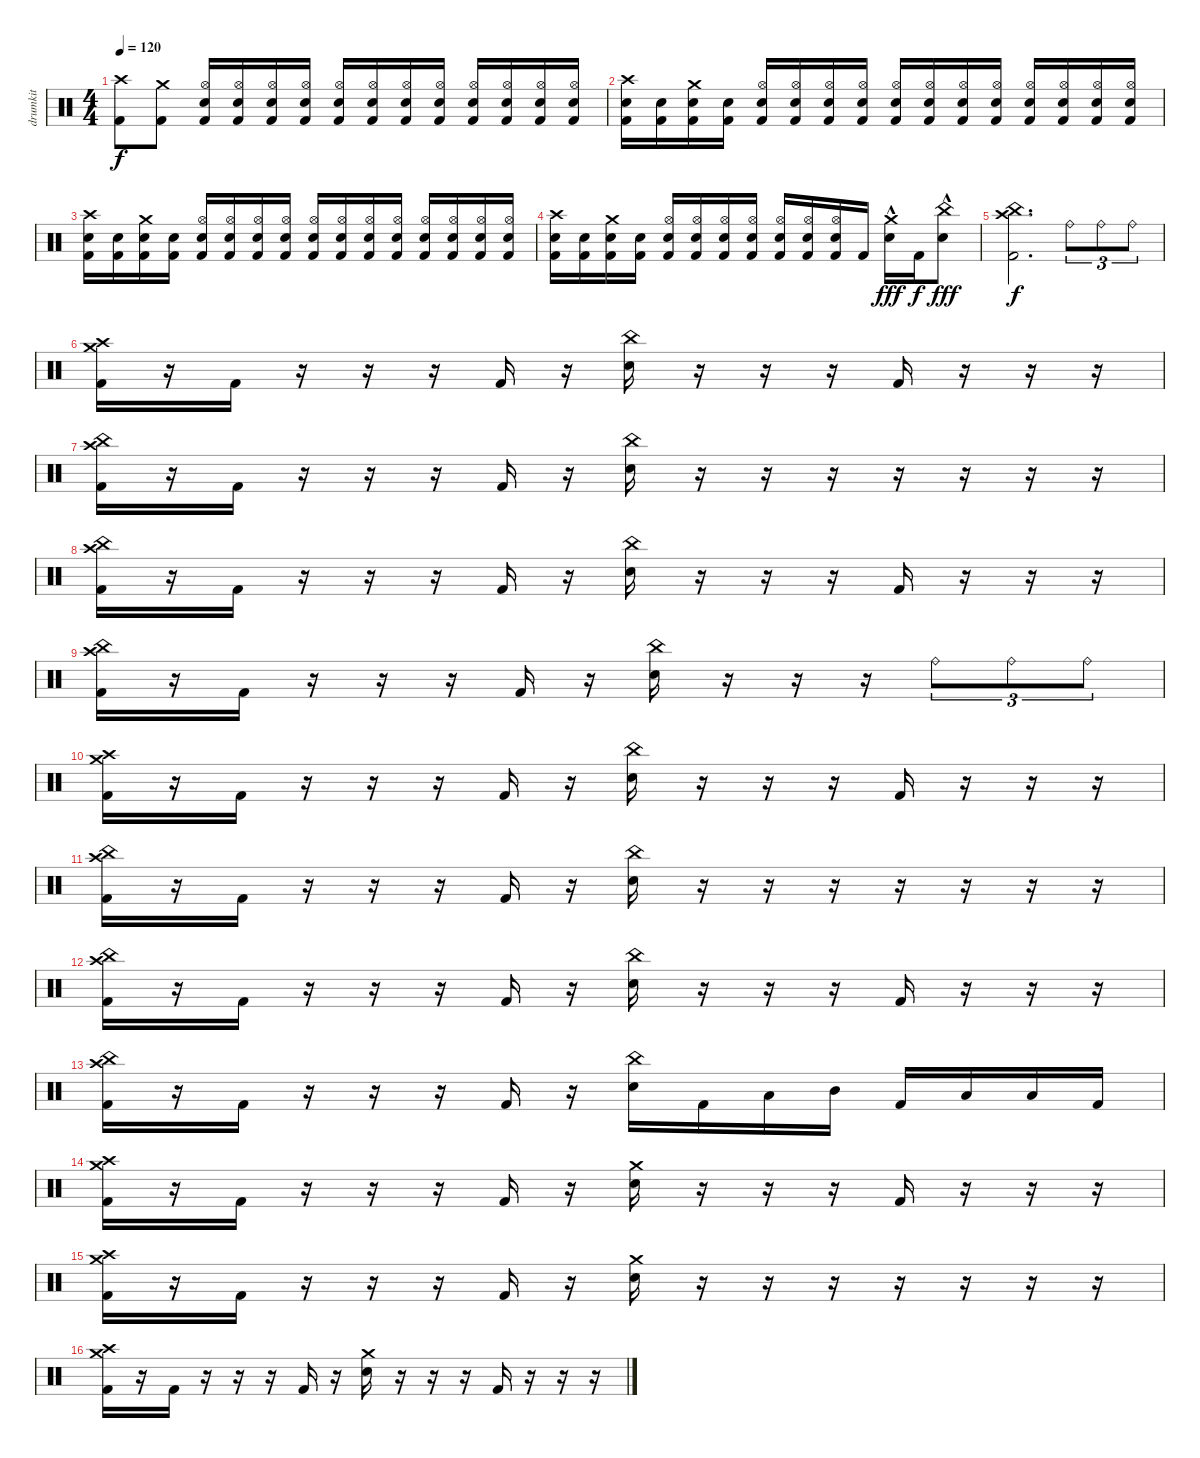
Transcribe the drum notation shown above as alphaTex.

\track ("drumkit" "drumkit") {instrument percussion}
\staff {score}
\articulation defaults
\ts (4 4)
\tempo 120
\clef neutral
\ks c
("Crash high (hit)" "Kick (hit) 2").8{dy f} ("Crash medium (hit)" "Kick (hit) 2").8 ("Hi-Hat (open)" "Electric Snare (hit)" "Kick (hit) 2").16 ("Hi-Hat (open)" "Electric Snare (hit)" "Kick (hit) 2").16 ("Hi-Hat (open)" "Electric Snare (hit)" "Kick (hit) 2").16 ("Hi-Hat (open)" "Electric Snare (hit)" "Kick (hit) 2").16 ("Hi-Hat (open)" "Electric Snare (hit)" "Kick (hit) 2").16 ("Hi-Hat (open)" "Electric Snare (hit)" "Kick (hit) 2").16 ("Hi-Hat (open)" "Electric Snare (hit)" "Kick (hit) 2").16 ("Hi-Hat (open)" "Electric Snare (hit)" "Kick (hit) 2").16 ("Hi-Hat (open)" "Electric Snare (hit)" "Kick (hit) 2").16 ("Hi-Hat (open)" "Electric Snare (hit)" "Kick (hit) 2").16 ("Hi-Hat (open)" "Electric Snare (hit)" "Kick (hit) 2").16 ("Hi-Hat (open)" "Electric Snare (hit)" "Kick (hit) 2").16 |
("Crash high (hit)" "Electric Snare (hit)" "Kick (hit) 2").16 ("Electric Snare (hit)" "Kick (hit) 2").16 ("Crash medium (hit)" "Electric Snare (hit)" "Kick (hit) 2").16 ("Electric Snare (hit)" "Kick (hit) 2").16 ("Hi-Hat (open)" "Electric Snare (hit)" "Kick (hit) 2").16 ("Hi-Hat (open)" "Electric Snare (hit)" "Kick (hit) 2").16 ("Hi-Hat (open)" "Electric Snare (hit)" "Kick (hit) 2").16 ("Hi-Hat (open)" "Electric Snare (hit)" "Kick (hit) 2").16 ("Hi-Hat (open)" "Electric Snare (hit)" "Kick (hit) 2").16 ("Hi-Hat (open)" "Electric Snare (hit)" "Kick (hit) 2").16 ("Hi-Hat (open)" "Electric Snare (hit)" "Kick (hit) 2").16 ("Hi-Hat (open)" "Electric Snare (hit)" "Kick (hit) 2").16 ("Hi-Hat (open)" "Electric Snare (hit)" "Kick (hit) 2").16 ("Hi-Hat (open)" "Electric Snare (hit)" "Kick (hit) 2").16 ("Hi-Hat (open)" "Electric Snare (hit)" "Kick (hit) 2").16 ("Hi-Hat (open)" "Electric Snare (hit)" "Kick (hit) 2").16 |
("Crash high (hit)" "Electric Snare (hit)" "Kick (hit) 2").16 ("Electric Snare (hit)" "Kick (hit) 2").16 ("Crash medium (hit)" "Electric Snare (hit)" "Kick (hit) 2").16 ("Electric Snare (hit)" "Kick (hit) 2").16 ("Hi-Hat (open)" "Electric Snare (hit)" "Kick (hit) 2").16 ("Hi-Hat (open)" "Electric Snare (hit)" "Kick (hit) 2").16 ("Hi-Hat (open)" "Electric Snare (hit)" "Kick (hit) 2").16 ("Hi-Hat (open)" "Electric Snare (hit)" "Kick (hit) 2").16 ("Hi-Hat (open)" "Electric Snare (hit)" "Kick (hit) 2").16 ("Hi-Hat (open)" "Electric Snare (hit)" "Kick (hit) 2").16 ("Hi-Hat (open)" "Electric Snare (hit)" "Kick (hit) 2").16 ("Hi-Hat (open)" "Electric Snare (hit)" "Kick (hit) 2").16 ("Hi-Hat (open)" "Electric Snare (hit)" "Kick (hit) 2").16 ("Hi-Hat (open)" "Electric Snare (hit)" "Kick (hit) 2").16 ("Hi-Hat (open)" "Electric Snare (hit)" "Kick (hit) 2").16 ("Hi-Hat (open)" "Electric Snare (hit)" "Kick (hit) 2").16 |
("Crash high (hit)" "Electric Snare (hit)" "Kick (hit) 2").16 ("Electric Snare (hit)" "Kick (hit) 2").16 ("Crash medium (hit)" "Electric Snare (hit)" "Kick (hit) 2").16 ("Electric Snare (hit)" "Kick (hit) 2").16 ("Hi-Hat (open)" "Electric Snare (hit)" "Kick (hit) 2").16 ("Hi-Hat (open)" "Electric Snare (hit)" "Kick (hit) 2").16 ("Hi-Hat (open)" "Electric Snare (hit)" "Kick (hit) 2").16 ("Hi-Hat (open)" "Electric Snare (hit)" "Kick (hit) 2").16 ("Hi-Hat (open)" "Electric Snare (hit)" "Kick (hit) 2").16 ("Hi-Hat (open)" "Electric Snare (hit)" "Kick (hit) 2").16 ("Hi-Hat (open)" "Electric Snare (hit)" "Kick (hit) 2").16 "Kick (hit) 2".16 ("Crash medium (hit)" "Electric Snare (hit)"{hac}).16{dy fff} "Kick (hit) 2".16{dy f} ("China (hit)" "Electric Snare (hit)"{hac}).8{dy fff} |
("China (hit)" "Crash high (hit)" "Kick (hit) 2").2{d dy f} "Ride (bell)".8{tu (3 2)} "Ride (bell)".8{tu (3 2)} "Ride (bell)".8{tu (3 2)} |
("Crash high (hit)" "Crash medium (hit)" "Kick (hit) 2").16 r.16 "Kick (hit) 2".16 r.16 r.16 r.16 "Kick (hit) 2".16 r.16 ("China (hit)" "Electric Snare (hit)").16 r.16 r.16 r.16 "Kick (hit) 2".16 r.16 r.16 r.16 |
("China (hit)" "Crash high (hit)" "Kick (hit) 2").16 r.16 "Kick (hit) 2".16 r.16 r.16 r.16 "Kick (hit) 2".16 r.16 ("China (hit)" "Electric Snare (hit)").16 r.16 r.16 r.16 r.16 r.16 r.16 r.16 |
("China (hit)" "Crash high (hit)" "Kick (hit) 2").16 r.16 "Kick (hit) 2".16 r.16 r.16 r.16 "Kick (hit) 2".16 r.16 ("China (hit)" "Electric Snare (hit)").16 r.16 r.16 r.16 "Kick (hit) 2".16 r.16 r.16 r.16 |
("China (hit)" "Crash high (hit)" "Kick (hit) 2").16 r.16 "Kick (hit) 2".16 r.16 r.16 r.16 "Kick (hit) 2".16 r.16 ("China (hit)" "Electric Snare (hit)").16 r.16 r.16 r.16 "Ride (bell)".8{tu (3 2)} "Ride (bell)".8{tu (3 2)} "Ride (bell)".8{tu (3 2)} |
("Crash high (hit)" "Crash medium (hit)" "Kick (hit) 2").16 r.16 "Kick (hit) 2".16 r.16 r.16 r.16 "Kick (hit) 2".16 r.16 ("China (hit)" "Electric Snare (hit)").16 r.16 r.16 r.16 "Kick (hit) 2".16 r.16 r.16 r.16 |
("China (hit)" "Crash high (hit)" "Kick (hit) 2").16 r.16 "Kick (hit) 2".16 r.16 r.16 r.16 "Kick (hit) 2".16 r.16 ("China (hit)" "Electric Snare (hit)").16 r.16 r.16 r.16 r.16 r.16 r.16 r.16 |
("China (hit)" "Crash high (hit)" "Kick (hit) 2").16 r.16 "Kick (hit) 2".16 r.16 r.16 r.16 "Kick (hit) 2".16 r.16 ("China (hit)" "Electric Snare (hit)").16 r.16 r.16 r.16 "Kick (hit) 2".16 r.16 r.16 r.16 |
("China (hit)" "Crash high (hit)" "Kick (hit) 2").16 r.16 "Kick (hit) 2".16 r.16 r.16 r.16 "Kick (hit) 2".16 r.16 ("China (hit)" "Electric Snare (hit)").16 "Kick (hit) 2".16 "Low Floor Tom (hit)".16 "Mid Tom (hit)".16 "Kick (hit) 2".16 "Low Floor Tom (hit)".16 "Low Tom (hit)".16 "Kick (hit) 2".16 |
("Crash high (hit)" "Crash medium (hit)" "Kick (hit) 2").16 r.16 "Kick (hit) 2".16 r.16 r.16 r.16 "Kick (hit) 2".16 r.16 ("Crash medium (hit)" "Electric Snare (hit)").16 r.16 r.16 r.16 "Kick (hit) 2".16 r.16 r.16 r.16 |
("Crash high (hit)" "Crash medium (hit)" "Kick (hit) 2").16 r.16 "Kick (hit) 2".16 r.16 r.16 r.16 "Kick (hit) 2".16 r.16 ("Crash medium (hit)" "Electric Snare (hit)").16 r.16 r.16 r.16 r.16 r.16 r.16 r.16 |
("Crash high (hit)" "Crash medium (hit)" "Kick (hit) 2").16 r.16 "Kick (hit) 2".16 r.16 r.16 r.16 "Kick (hit) 2".16 r.16 ("Crash medium (hit)" "Electric Snare (hit)").16 r.16 r.16 r.16 "Kick (hit) 2".16 r.16 r.16 r.16
